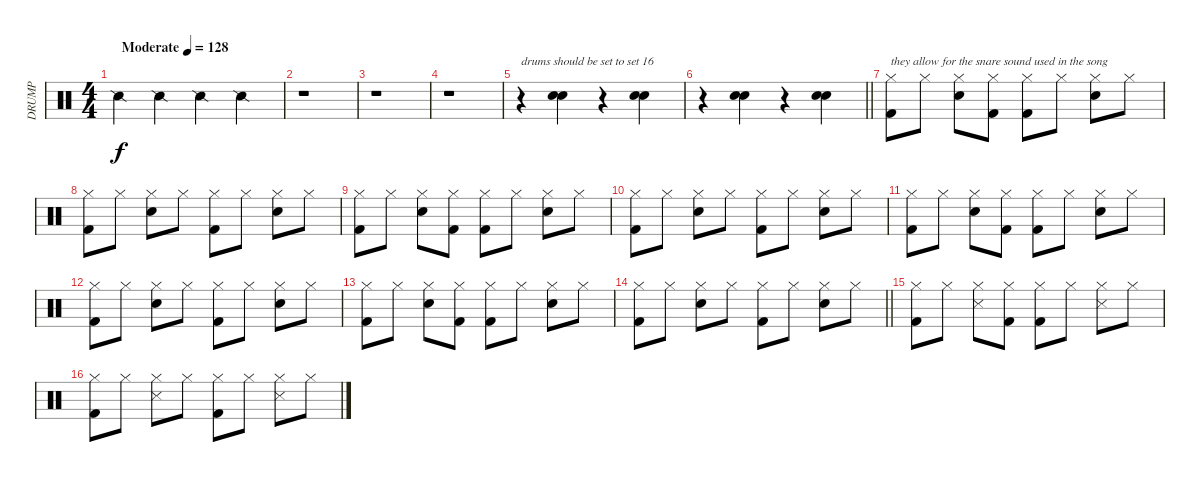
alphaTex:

\track ("DRUMP" "DRUMP") {instrument percussion}
\staff {score}
\articulation defaults
\ts (4 4)
\tempo (128 "Moderate")
\clef neutral
\ks c "Snare (side stick) 2".4{dy f} "Snare (side stick) 2".4 "Snare (side stick) 2".4 "Snare (side stick) 2".4
|
r.1 |
r.1 |
r.1 |
r.4{txt "drums should be set to set 16"} ("Hand Clap (hit)" "Snare (hit) 2").4 r.4 ("Hand Clap (hit)" "Snare (hit) 2").4 |
\barLineRight lightlight
r.4 ("Hand Clap (hit)" "Snare (hit) 2").4 r.4 ("Hand Clap (hit)" "Snare (hit) 2").4 |
("Hi-Hat (closed)" "Kick (hit) 2").8{txt "they allow for the snare sound used in the song"} "Hi-Hat (closed)".8 ("Hi-Hat (closed)" "Electric Snare (hit)").8 ("Hi-Hat (closed)" "Kick (hit) 2").8 ("Hi-Hat (closed)" "Kick (hit) 2").8 "Hi-Hat (closed)".8 ("Hi-Hat (closed)" "Electric Snare (hit)").8 "Hi-Hat (closed)".8 |
("Hi-Hat (closed)" "Kick (hit) 2").8 "Hi-Hat (closed)".8 ("Hi-Hat (closed)" "Electric Snare (hit)").8 "Hi-Hat (closed)".8 ("Hi-Hat (closed)" "Kick (hit) 2").8 "Hi-Hat (closed)".8 ("Hi-Hat (closed)" "Electric Snare (hit)").8 "Hi-Hat (closed)".8 |
("Hi-Hat (closed)" "Kick (hit) 2").8 "Hi-Hat (closed)".8 ("Hi-Hat (closed)" "Electric Snare (hit)").8 ("Hi-Hat (closed)" "Kick (hit) 2").8 ("Hi-Hat (closed)" "Kick (hit) 2").8 "Hi-Hat (closed)".8 ("Hi-Hat (closed)" "Electric Snare (hit)").8 "Hi-Hat (closed)".8 |
("Hi-Hat (closed)" "Kick (hit) 2").8 "Hi-Hat (closed)".8 ("Hi-Hat (closed)" "Electric Snare (hit)").8 "Hi-Hat (closed)".8 ("Hi-Hat (closed)" "Kick (hit) 2").8 "Hi-Hat (closed)".8 ("Hi-Hat (closed)" "Electric Snare (hit)").8 "Hi-Hat (closed)".8 |
("Hi-Hat (closed)" "Kick (hit) 2").8 "Hi-Hat (closed)".8 ("Hi-Hat (closed)" "Electric Snare (hit)").8 ("Hi-Hat (closed)" "Kick (hit) 2").8 ("Hi-Hat (closed)" "Kick (hit) 2").8 "Hi-Hat (closed)".8 ("Hi-Hat (closed)" "Electric Snare (hit)").8 "Hi-Hat (closed)".8 |
("Hi-Hat (closed)" "Kick (hit) 2").8 "Hi-Hat (closed)".8 ("Hi-Hat (closed)" "Electric Snare (hit)").8 "Hi-Hat (closed)".8 ("Hi-Hat (closed)" "Kick (hit) 2").8 "Hi-Hat (closed)".8 ("Hi-Hat (closed)" "Electric Snare (hit)").8 "Hi-Hat (closed)".8 |
("Hi-Hat (closed)" "Kick (hit) 2").8 "Hi-Hat (closed)".8 ("Hi-Hat (closed)" "Electric Snare (hit)").8 ("Hi-Hat (closed)" "Kick (hit) 2").8 ("Hi-Hat (closed)" "Kick (hit) 2").8 "Hi-Hat (closed)".8 ("Hi-Hat (closed)" "Electric Snare (hit)").8 "Hi-Hat (closed)".8 |
\barLineRight lightlight
("Hi-Hat (closed)" "Kick (hit) 2").8 "Hi-Hat (closed)".8 ("Hi-Hat (closed)" "Electric Snare (hit)").8 "Hi-Hat (closed)".8 ("Hi-Hat (closed)" "Kick (hit) 2").8 "Hi-Hat (closed)".8 ("Hi-Hat (closed)" "Electric Snare (hit)").8 "Hi-Hat (closed)".8 |
("Hi-Hat (closed)" "Kick (hit) 2").8 "Hi-Hat (closed)".8 ("Hi-Hat (closed)" "Snare (side stick) 3").8 ("Hi-Hat (closed)" "Kick (hit) 2").8 ("Hi-Hat (closed)" "Kick (hit) 2").8 "Hi-Hat (closed)".8 ("Hi-Hat (closed)" "Snare (side stick) 3").8 "Hi-Hat (closed)".8 |
("Hi-Hat (closed)" "Kick (hit) 2").8 "Hi-Hat (closed)".8 ("Hi-Hat (closed)" "Snare (side stick) 3").8 "Hi-Hat (closed)".8 ("Hi-Hat (closed)" "Kick (hit) 2").8 "Hi-Hat (closed)".8 ("Hi-Hat (closed)" "Snare (side stick) 3").8 "Hi-Hat (closed)".8
